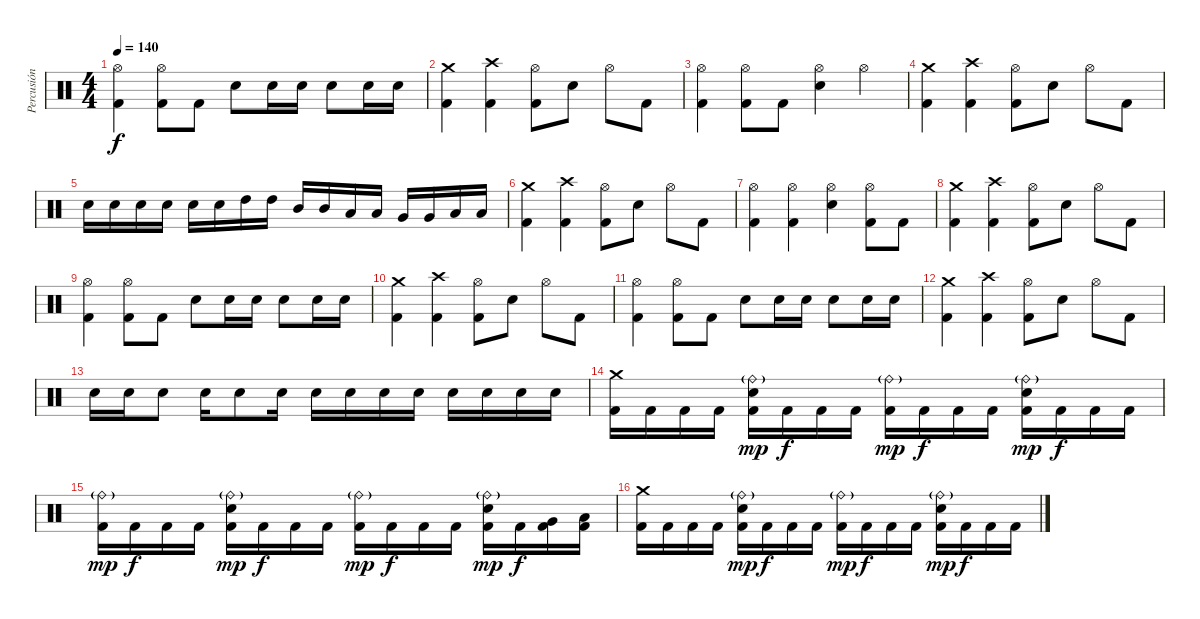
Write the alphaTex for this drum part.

\track ("Percusión" "Percusión") {instrument percussion}
\staff {score}
\articulation defaults
\ts (4 4)
\tempo 140
\clef neutral
\ks c
("Hi-Hat (open)" "Kick (hit) 2").4{dy f} ("Hi-Hat (open)" "Kick (hit) 2").8 "Kick (hit) 2".8 "Electric Snare (hit)".8 "Electric Snare (hit)".16 "Electric Snare (hit)".16 "Electric Snare (hit)".8 "Electric Snare (hit)".16 "Electric Snare (hit)".16 |
("Crash medium (hit)" "Kick (hit) 2").4 ("Crash high (hit)" "Kick (hit) 2").4 ("Hi-Hat (open)" "Kick (hit) 2").8 "Electric Snare (hit)".8 "Hi-Hat (open)".8 "Kick (hit) 2".8 |
("Hi-Hat (open)" "Kick (hit) 2").4 ("Hi-Hat (open)" "Kick (hit) 2").8 "Kick (hit) 2".8 ("Hi-Hat (open)" "Electric Snare (hit)").4 "Hi-Hat (open)".4 |
("Crash medium (hit)" "Kick (hit) 2").4 ("Crash high (hit)" "Kick (hit) 2").4 ("Hi-Hat (open)" "Kick (hit) 2").8 "Electric Snare (hit)".8 "Hi-Hat (open)".8 "Kick (hit) 2".8 |
"Electric Snare (hit)".16 "Electric Snare (hit)".16 "Electric Snare (hit)".16 "Electric Snare (hit)".16 "Electric Snare (hit)".16 "Electric Snare (hit)".16 "High Tom (hit)".16 "High Tom (hit)".16 "Mid Tom (hit)".16 "Mid Tom (hit)".16 "Low Tom (hit)".16 "Low Tom (hit)".16 "Very Low Tom (hit)".16 "Very Low Tom (hit)".16 "Low Floor Tom (hit)".16 "Low Floor Tom (hit)".16 |
("Crash medium (hit)" "Kick (hit) 2").4 ("Crash high (hit)" "Kick (hit) 2").4 ("Hi-Hat (open)" "Kick (hit) 2").8 "Electric Snare (hit)".8 "Hi-Hat (open)".8 "Kick (hit) 2".8 |
("Hi-Hat (open)" "Kick (hit) 2").4 ("Hi-Hat (open)" "Kick (hit) 2").4 ("Hi-Hat (open)" "Electric Snare (hit)").4 ("Hi-Hat (open)" "Kick (hit) 2").8 "Kick (hit) 2".8 |
("Crash medium (hit)" "Kick (hit) 2").4 ("Crash high (hit)" "Kick (hit) 2").4 ("Hi-Hat (open)" "Kick (hit) 2").8 "Electric Snare (hit)".8 "Hi-Hat (open)".8 "Kick (hit) 2".8 |
("Hi-Hat (open)" "Kick (hit) 2").4 ("Hi-Hat (open)" "Kick (hit) 2").8 "Kick (hit) 2".8 "Electric Snare (hit)".8 "Electric Snare (hit)".16 "Electric Snare (hit)".16 "Electric Snare (hit)".8 "Electric Snare (hit)".16 "Electric Snare (hit)".16 |
("Crash medium (hit)" "Kick (hit) 2").4 ("Crash high (hit)" "Kick (hit) 2").4 ("Hi-Hat (open)" "Kick (hit) 2").8 "Electric Snare (hit)".8 "Hi-Hat (open)".8 "Kick (hit) 2".8 |
("Hi-Hat (open)" "Kick (hit) 2").4 ("Hi-Hat (open)" "Kick (hit) 2").8 "Kick (hit) 2".8 "Electric Snare (hit)".8 "Electric Snare (hit)".16 "Electric Snare (hit)".16 "Electric Snare (hit)".8 "Electric Snare (hit)".16 "Electric Snare (hit)".16 |
("Crash medium (hit)" "Kick (hit) 2").4 ("Crash high (hit)" "Kick (hit) 2").4 ("Hi-Hat (open)" "Kick (hit) 2").8 "Electric Snare (hit)".8 "Hi-Hat (open)".8 "Kick (hit) 2".8 |
"Electric Snare (hit)".16 "Electric Snare (hit)".16 "Electric Snare (hit)".8 "Electric Snare (hit)".16 "Electric Snare (hit)".8 "Electric Snare (hit)".16 "Electric Snare (hit)".16 "Electric Snare (hit)".16 "Electric Snare (hit)".16 "Electric Snare (hit)".16 "Electric Snare (hit)".16 "Electric Snare (hit)".16 "Electric Snare (hit)".16 "Electric Snare (hit)".16 |
("Crash medium (hit)" "Kick (hit) 2").16 "Kick (hit) 2".16 "Kick (hit) 2".16 "Kick (hit) 2".16 ("Ride (bell)"{g} "Electric Snare (hit)" "Kick (hit) 2").16{dy mp} "Kick (hit) 2".16{dy f} "Kick (hit) 2".16 "Kick (hit) 2".16 ("Ride (bell)"{g} "Kick (hit) 2").16{dy mp} "Kick (hit) 2".16{dy f} "Kick (hit) 2".16 "Kick (hit) 2".16 ("Ride (bell)"{g} "Electric Snare (hit)" "Kick (hit) 2").16{dy mp} "Kick (hit) 2".16{dy f} "Kick (hit) 2".16 "Kick (hit) 2".16 |
("Ride (bell)"{g} "Kick (hit) 2").16{dy mp} "Kick (hit) 2".16{dy f} "Kick (hit) 2".16 "Kick (hit) 2".16 ("Ride (bell)"{g} "Electric Snare (hit)" "Kick (hit) 2").16{dy mp} "Kick (hit) 2".16{dy f} "Kick (hit) 2".16 "Kick (hit) 2".16 ("Ride (bell)"{g} "Kick (hit) 2").16{dy mp} "Kick (hit) 2".16{dy f} "Kick (hit) 2".16 "Kick (hit) 2".16 ("Ride (bell)"{g} "Electric Snare (hit)" "Kick (hit) 2").16{dy mp} "Kick (hit) 2".16{dy f} ("Very Low Tom (hit)" "Kick (hit) 2").16 ("Low Floor Tom (hit)" "Kick (hit) 2").16 |
("Crash medium (hit)" "Kick (hit) 2").16 "Kick (hit) 2".16 "Kick (hit) 2".16 "Kick (hit) 2".16 ("Ride (bell)"{g} "Electric Snare (hit)" "Kick (hit) 2").16{dy mp} "Kick (hit) 2".16{dy f} "Kick (hit) 2".16 "Kick (hit) 2".16 ("Ride (bell)"{g} "Kick (hit) 2").16{dy mp} "Kick (hit) 2".16{dy f} "Kick (hit) 2".16 "Kick (hit) 2".16 ("Ride (bell)"{g} "Electric Snare (hit)" "Kick (hit) 2").16{dy mp} "Kick (hit) 2".16{dy f} "Kick (hit) 2".16 "Kick (hit) 2".16
